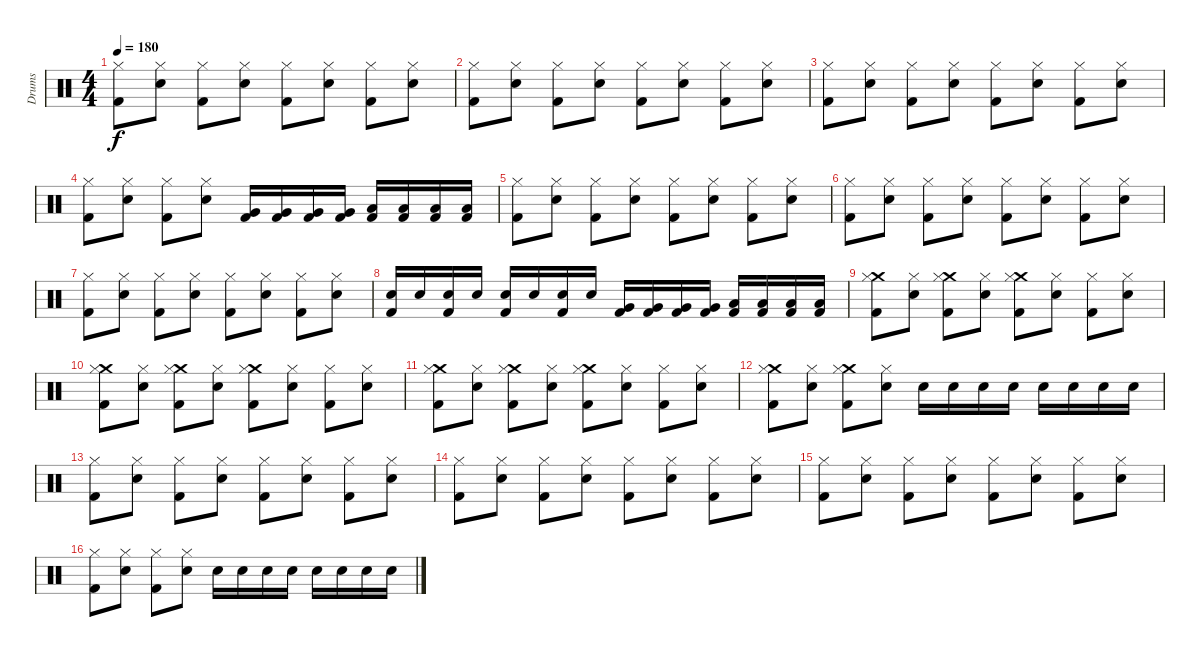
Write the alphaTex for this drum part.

\track ("Drums" "Drums") {instrument percussion}
\staff {score}
\articulation defaults
\ts (4 4)
\tempo 180
\clef neutral
\ks c
("Hi-Hat (closed)" "Kick (hit) 2").8{dy f} ("Hi-Hat (closed)" "Electric Snare (hit)").8 ("Hi-Hat (closed)" "Kick (hit) 2").8 ("Hi-Hat (closed)" "Electric Snare (hit)").8 ("Hi-Hat (closed)" "Kick (hit) 2").8 ("Hi-Hat (closed)" "Electric Snare (hit)").8 ("Hi-Hat (closed)" "Kick (hit) 2").8 ("Hi-Hat (closed)" "Electric Snare (hit)").8 |
("Hi-Hat (closed)" "Kick (hit) 2").8 ("Hi-Hat (closed)" "Electric Snare (hit)").8 ("Hi-Hat (closed)" "Kick (hit) 2").8 ("Hi-Hat (closed)" "Electric Snare (hit)").8 ("Hi-Hat (closed)" "Kick (hit) 2").8 ("Hi-Hat (closed)" "Electric Snare (hit)").8 ("Hi-Hat (closed)" "Kick (hit) 2").8 ("Hi-Hat (closed)" "Electric Snare (hit)").8 |
("Hi-Hat (closed)" "Kick (hit) 2").8 ("Hi-Hat (closed)" "Electric Snare (hit)").8 ("Hi-Hat (closed)" "Kick (hit) 2").8 ("Hi-Hat (closed)" "Electric Snare (hit)").8 ("Hi-Hat (closed)" "Kick (hit) 2").8 ("Hi-Hat (closed)" "Electric Snare (hit)").8 ("Hi-Hat (closed)" "Kick (hit) 2").8 ("Hi-Hat (closed)" "Electric Snare (hit)").8 |
("Hi-Hat (closed)" "Kick (hit) 2").8 ("Hi-Hat (closed)" "Electric Snare (hit)").8 ("Hi-Hat (closed)" "Kick (hit) 2").8 ("Hi-Hat (closed)" "Electric Snare (hit)").8 ("Very Low Tom (hit)" "Kick (hit) 2").16 ("Very Low Tom (hit)" "Kick (hit) 2").16 ("Very Low Tom (hit)" "Kick (hit) 2").16 ("Very Low Tom (hit)" "Kick (hit) 2").16 ("Low Floor Tom (hit)" "Kick (hit) 2").16 ("Low Floor Tom (hit)" "Kick (hit) 2").16 ("Low Floor Tom (hit)" "Kick (hit) 2").16 ("Low Floor Tom (hit)" "Kick (hit) 2").16 |
("Hi-Hat (closed)" "Kick (hit) 2").8 ("Hi-Hat (closed)" "Electric Snare (hit)").8 ("Hi-Hat (closed)" "Kick (hit) 2").8 ("Hi-Hat (closed)" "Electric Snare (hit)").8 ("Hi-Hat (closed)" "Kick (hit) 2").8 ("Hi-Hat (closed)" "Electric Snare (hit)").8 ("Hi-Hat (closed)" "Kick (hit) 2").8 ("Hi-Hat (closed)" "Electric Snare (hit)").8 |
("Hi-Hat (closed)" "Kick (hit) 2").8 ("Hi-Hat (closed)" "Electric Snare (hit)").8 ("Hi-Hat (closed)" "Kick (hit) 2").8 ("Hi-Hat (closed)" "Electric Snare (hit)").8 ("Hi-Hat (closed)" "Kick (hit) 2").8 ("Hi-Hat (closed)" "Electric Snare (hit)").8 ("Hi-Hat (closed)" "Kick (hit) 2").8 ("Hi-Hat (closed)" "Electric Snare (hit)").8 |
("Hi-Hat (closed)" "Kick (hit) 2").8 ("Hi-Hat (closed)" "Electric Snare (hit)").8 ("Hi-Hat (closed)" "Kick (hit) 2").8 ("Hi-Hat (closed)" "Electric Snare (hit)").8 ("Hi-Hat (closed)" "Kick (hit) 2").8 ("Hi-Hat (closed)" "Electric Snare (hit)").8 ("Hi-Hat (closed)" "Kick (hit) 2").8 ("Hi-Hat (closed)" "Electric Snare (hit)").8 |
("Electric Snare (hit)" "Kick (hit) 2").16 "Electric Snare (hit)".16 ("Electric Snare (hit)" "Kick (hit) 2").16 "Electric Snare (hit)".16 ("Electric Snare (hit)" "Kick (hit) 2").16 "Electric Snare (hit)".16 ("Electric Snare (hit)" "Kick (hit) 2").16 "Electric Snare (hit)".16 ("Very Low Tom (hit)" "Kick (hit) 2").16 ("Very Low Tom (hit)" "Kick (hit) 2").16 ("Very Low Tom (hit)" "Kick (hit) 2").16 ("Very Low Tom (hit)" "Kick (hit) 2").16 ("Low Floor Tom (hit)" "Kick (hit) 2").16 ("Low Floor Tom (hit)" "Kick (hit) 2").16 ("Low Floor Tom (hit)" "Kick (hit) 2").16 ("Low Floor Tom (hit)" "Kick (hit) 2").16 |
("Crash medium (hit)" "Hi-Hat (closed)" "Kick (hit) 2").8 ("Hi-Hat (closed)" "Electric Snare (hit)").8 ("Crash medium (hit)" "Hi-Hat (closed)" "Kick (hit) 2").8 ("Hi-Hat (closed)" "Electric Snare (hit)").8 ("Crash medium (hit)" "Hi-Hat (closed)" "Kick (hit) 2").8 ("Hi-Hat (closed)" "Electric Snare (hit)").8 ("Hi-Hat (closed)" "Kick (hit) 2").8 ("Hi-Hat (closed)" "Electric Snare (hit)").8 |
("Crash medium (hit)" "Hi-Hat (closed)" "Kick (hit) 2").8 ("Hi-Hat (closed)" "Electric Snare (hit)").8 ("Crash medium (hit)" "Hi-Hat (closed)" "Kick (hit) 2").8 ("Hi-Hat (closed)" "Electric Snare (hit)").8 ("Crash medium (hit)" "Hi-Hat (closed)" "Kick (hit) 2").8 ("Hi-Hat (closed)" "Electric Snare (hit)").8 ("Hi-Hat (closed)" "Kick (hit) 2").8 ("Hi-Hat (closed)" "Electric Snare (hit)").8 |
("Crash medium (hit)" "Hi-Hat (closed)" "Kick (hit) 2").8 ("Hi-Hat (closed)" "Electric Snare (hit)").8 ("Crash medium (hit)" "Hi-Hat (closed)" "Kick (hit) 2").8 ("Hi-Hat (closed)" "Electric Snare (hit)").8 ("Crash medium (hit)" "Hi-Hat (closed)" "Kick (hit) 2").8 ("Hi-Hat (closed)" "Electric Snare (hit)").8 ("Hi-Hat (closed)" "Kick (hit) 2").8 ("Hi-Hat (closed)" "Electric Snare (hit)").8 |
("Crash medium (hit)" "Hi-Hat (closed)" "Kick (hit) 2").8 ("Hi-Hat (closed)" "Electric Snare (hit)").8 ("Crash medium (hit)" "Hi-Hat (closed)" "Kick (hit) 2").8 ("Hi-Hat (closed)" "Electric Snare (hit)").8 "Electric Snare (hit)".16 "Electric Snare (hit)".16 "Electric Snare (hit)".16 "Electric Snare (hit)".16 "Electric Snare (hit)".16 "Electric Snare (hit)".16 "Electric Snare (hit)".16 "Electric Snare (hit)".16 |
("Hi-Hat (closed)" "Kick (hit) 2").8 ("Hi-Hat (closed)" "Electric Snare (hit)").8 ("Hi-Hat (closed)" "Kick (hit) 2").8 ("Hi-Hat (closed)" "Electric Snare (hit)").8 ("Hi-Hat (closed)" "Kick (hit) 2").8 ("Hi-Hat (closed)" "Electric Snare (hit)").8 ("Hi-Hat (closed)" "Kick (hit) 2").8 ("Hi-Hat (closed)" "Electric Snare (hit)").8 |
("Hi-Hat (closed)" "Kick (hit) 2").8 ("Hi-Hat (closed)" "Electric Snare (hit)").8 ("Hi-Hat (closed)" "Kick (hit) 2").8 ("Hi-Hat (closed)" "Electric Snare (hit)").8 ("Hi-Hat (closed)" "Kick (hit) 2").8 ("Hi-Hat (closed)" "Electric Snare (hit)").8 ("Hi-Hat (closed)" "Kick (hit) 2").8 ("Hi-Hat (closed)" "Electric Snare (hit)").8 |
("Hi-Hat (closed)" "Kick (hit) 2").8 ("Hi-Hat (closed)" "Electric Snare (hit)").8 ("Hi-Hat (closed)" "Kick (hit) 2").8 ("Hi-Hat (closed)" "Electric Snare (hit)").8 ("Hi-Hat (closed)" "Kick (hit) 2").8 ("Hi-Hat (closed)" "Electric Snare (hit)").8 ("Hi-Hat (closed)" "Kick (hit) 2").8 ("Hi-Hat (closed)" "Electric Snare (hit)").8 |
("Hi-Hat (closed)" "Kick (hit) 2").8 ("Hi-Hat (closed)" "Electric Snare (hit)").8 ("Hi-Hat (closed)" "Kick (hit) 2").8 ("Hi-Hat (closed)" "Electric Snare (hit)").8 "Electric Snare (hit)".16 "Electric Snare (hit)".16 "Electric Snare (hit)".16 "Electric Snare (hit)".16 "Electric Snare (hit)".16 "Electric Snare (hit)".16 "Electric Snare (hit)".16 "Electric Snare (hit)".16
